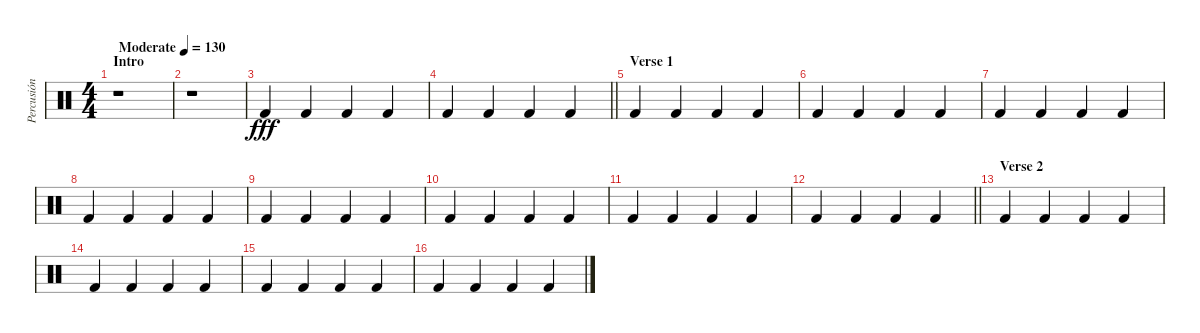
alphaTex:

\track ("Percusión" "Percusión") {instrument percussion}
\staff {score}
\articulation defaults
\ts (4 4)
\section ("" "Intro")
\tempo (130 "Moderate")
\clef neutral
\ks c
r.1{dy fff} |
r.1 |
"Kick (hit) 2".4 "Kick (hit) 2".4 "Kick (hit) 2".4 "Kick (hit) 2".4 |
\barLineRight lightlight "Kick (hit) 2".4 "Kick (hit) 2".4 "Kick (hit) 2".4 "Kick (hit) 2".4
|
\section ("" "Verse 1")
"Kick (hit) 2".4 "Kick (hit) 2".4 "Kick (hit) 2".4 "Kick (hit) 2".4 |
"Kick (hit) 2".4 "Kick (hit) 2".4 "Kick (hit) 2".4 "Kick (hit) 2".4 |
"Kick (hit) 2".4 "Kick (hit) 2".4 "Kick (hit) 2".4 "Kick (hit) 2".4 |
"Kick (hit) 2".4 "Kick (hit) 2".4 "Kick (hit) 2".4 "Kick (hit) 2".4 |
"Kick (hit) 2".4 "Kick (hit) 2".4 "Kick (hit) 2".4 "Kick (hit) 2".4 |
"Kick (hit) 2".4 "Kick (hit) 2".4 "Kick (hit) 2".4 "Kick (hit) 2".4 |
"Kick (hit) 2".4 "Kick (hit) 2".4 "Kick (hit) 2".4 "Kick (hit) 2".4 |
\barLineRight lightlight "Kick (hit) 2".4 "Kick (hit) 2".4 "Kick (hit) 2".4 "Kick (hit) 2".4
|
\section ("" "Verse 2")
"Kick (hit) 2".4 "Kick (hit) 2".4 "Kick (hit) 2".4 "Kick (hit) 2".4 |
"Kick (hit) 2".4 "Kick (hit) 2".4 "Kick (hit) 2".4 "Kick (hit) 2".4 |
"Kick (hit) 2".4 "Kick (hit) 2".4 "Kick (hit) 2".4 "Kick (hit) 2".4 |
"Kick (hit) 2".4 "Kick (hit) 2".4 "Kick (hit) 2".4 "Kick (hit) 2".4
